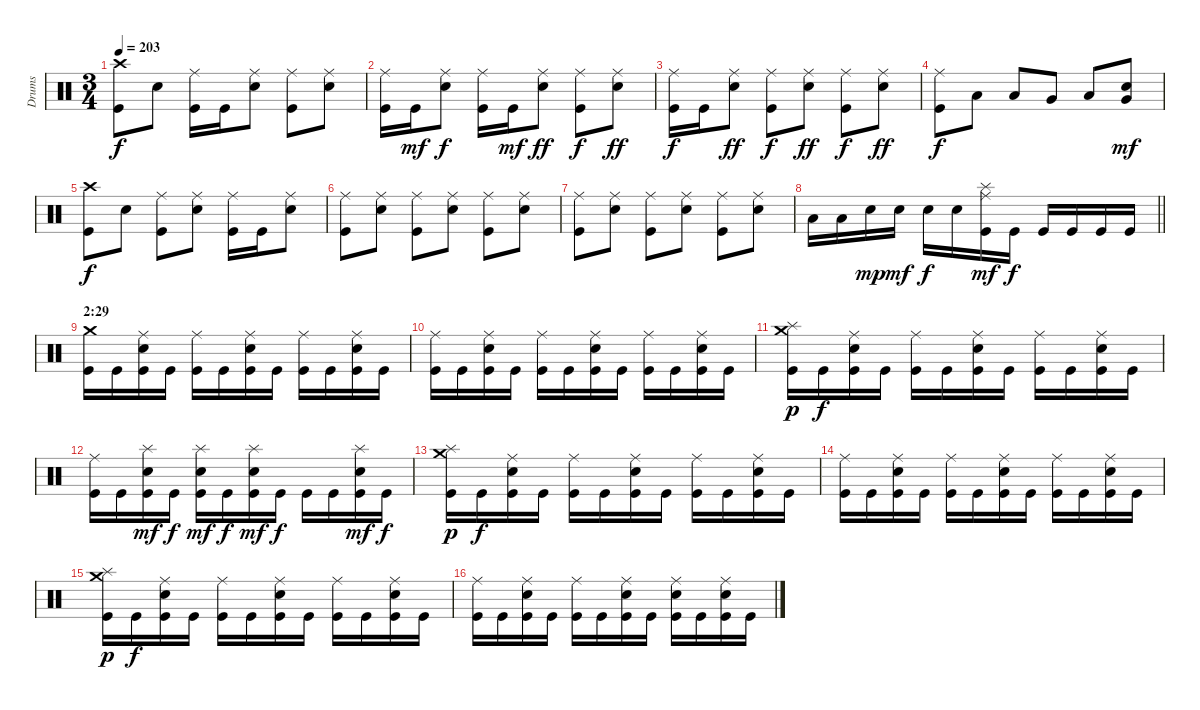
\track ("Drums" "Drums") {instrument percussion}
\staff {score}
\articulation defaults
\ts (3 4)
\tempo 203
\clef neutral
\ks c
("Crash high (hit)" "Kick (hit)").8{dy f} "Electric Snare (hit)".8 ("Ride (middle)" "Kick (hit)").16 "Kick (hit)".16 ("Ride (middle)" "Electric Snare (hit)").8 ("Ride (middle)" "Kick (hit)").8 ("Ride (middle)" "Electric Snare (hit)").8 |
("Ride (middle)" "Kick (hit)").16 "Kick (hit)".16{dy mf} ("Ride (middle)" "Electric Snare (hit)").8{dy f} ("Ride (middle)" "Kick (hit)").16 "Kick (hit)".16{dy mf} ("Ride (middle)" "Electric Snare (hit)").8{dy ff} ("Ride (middle)" "Kick (hit)").8{dy f} ("Ride (middle)" "Electric Snare (hit)").8{dy ff} |
("Ride (middle)" "Kick (hit)").16{dy f} "Kick (hit)".16 ("Ride (middle)" "Electric Snare (hit)").8{dy ff} ("Ride (middle)" "Kick (hit)").8{dy f} ("Ride (middle)" "Electric Snare (hit)").8{dy ff} ("Ride (middle)" "Kick (hit)").8{dy f} ("Ride (middle)" "Electric Snare (hit)").8{dy ff} |
("Ride (middle)" "Kick (hit)").8{dy f} "Low Tom (hit)".8 "Low Tom (hit)".8 "Very Low Tom (hit)".8 "Low Floor Tom (hit)".8 ("Very Low Tom (hit)" "Electric Snare (hit)").8{dy mf} |
("Crash high (hit)" "Kick (hit)").8{dy f} "Electric Snare (hit)".8 ("Ride (middle)" "Kick (hit)").8 ("Ride (middle)" "Electric Snare (hit)").8 ("Ride (middle)" "Kick (hit)").16 "Kick (hit)".16 ("Ride (middle)" "Electric Snare (hit)").8 |
("Ride (middle)" "Kick (hit)").8 ("Ride (middle)" "Electric Snare (hit)").8 ("Ride (middle)" "Kick (hit)").8 ("Ride (middle)" "Electric Snare (hit)").8 ("Ride (middle)" "Kick (hit)").8 ("Ride (middle)" "Electric Snare (hit)").8 |
("Ride (middle)" "Kick (hit)").8 ("Ride (middle)" "Electric Snare (hit)").8 ("Ride (middle)" "Kick (hit)").8 ("Ride (middle)" "Electric Snare (hit)").8 ("Ride (middle)" "Kick (hit)").8 ("Ride (middle)" "Electric Snare (hit)").8 |
\barLineRight lightlight "Low Tom (hit)".16 "Low Tom (hit)".16 "Electric Snare (hit)".16{dy mp} "Electric Snare (hit)".16{dy mf} "Electric Snare (hit)".16{dy f} "Electric Snare (hit)".16
("Splash (hit)" "Ride (middle)" "Kick (hit)").16{dy mf} "Kick (hit)".16{dy f} "Kick (hit)".16 "Kick (hit)".16 "Kick (hit)".16 "Kick (hit)".16 |
\section ("" "2:29")
("Crash medium (hit)" "Kick (hit)").16 "Kick (hit)".16 ("Ride (middle)" "Electric Snare (hit)" "Kick (hit)").16 "Kick (hit)".16 ("Ride (middle)" "Kick (hit)").16 "Kick (hit)".16 ("Ride (middle)" "Electric Snare (hit)" "Kick (hit)").16 "Kick (hit)".16 ("Ride (middle)" "Kick (hit)").16 "Kick (hit)".16 ("Ride (middle)" "Electric Snare (hit)" "Kick (hit)").16 "Kick (hit)".16 |
("Ride (middle)" "Kick (hit)").16 "Kick (hit)".16 ("Ride (middle)" "Electric Snare (hit)" "Kick (hit)").16 "Kick (hit)".16 ("Ride (middle)" "Kick (hit)").16 "Kick (hit)".16 ("Ride (middle)" "Electric Snare (hit)" "Kick (hit)").16 "Kick (hit)".16 ("Ride (middle)" "Kick (hit)").16 "Kick (hit)".16 ("Ride (middle)" "Electric Snare (hit)" "Kick (hit)").16 "Kick (hit)".16 |
("Splash (hit)" "Crash medium (hit)" "Kick (hit)").16{dy p} "Kick (hit)".16{dy f} ("Ride (middle)" "Electric Snare (hit)" "Kick (hit)").16 "Kick (hit)".16 ("Ride (middle)" "Kick (hit)").16 "Kick (hit)".16 ("Ride (middle)" "Electric Snare (hit)" "Kick (hit)").16 "Kick (hit)".16 ("Ride (middle)" "Kick (hit)").16 "Kick (hit)".16 ("Ride (middle)" "Electric Snare (hit)" "Kick (hit)").16 "Kick (hit)".16 |
("Ride (middle)" "Kick (hit)").16 "Kick (hit)".16 ("Splash (hit)" "Electric Snare (hit)" "Kick (hit)").16{dy mf} "Kick (hit)".16{dy f} ("Splash (hit)" "Electric Snare (hit)" "Kick (hit)").16{dy mf} "Kick (hit)".16{dy f} ("Splash (hit)" "Electric Snare (hit)" "Kick (hit)").16{dy mf} "Kick (hit)".16{dy f} "Kick (hit)".16 "Kick (hit)".16 ("Splash (hit)" "Electric Snare (hit)" "Kick (hit)").16{dy mf} "Kick (hit)".16{dy f} |
("Splash (hit)" "Crash medium (hit)" "Kick (hit)").16{dy p} "Kick (hit)".16{dy f} ("Ride (middle)" "Electric Snare (hit)" "Kick (hit)").16 "Kick (hit)".16 ("Ride (middle)" "Kick (hit)").16 "Kick (hit)".16 ("Ride (middle)" "Electric Snare (hit)" "Kick (hit)").16 "Kick (hit)".16 ("Ride (middle)" "Kick (hit)").16 "Kick (hit)".16 ("Ride (middle)" "Electric Snare (hit)" "Kick (hit)").16 "Kick (hit)".16 |
("Ride (middle)" "Kick (hit)").16 "Kick (hit)".16 ("Ride (middle)" "Electric Snare (hit)" "Kick (hit)").16 "Kick (hit)".16 ("Ride (middle)" "Kick (hit)").16 "Kick (hit)".16 ("Ride (middle)" "Electric Snare (hit)" "Kick (hit)").16 "Kick (hit)".16 ("Ride (middle)" "Kick (hit)").16 "Kick (hit)".16 ("Ride (middle)" "Electric Snare (hit)" "Kick (hit)").16 "Kick (hit)".16 |
("Splash (hit)" "Crash medium (hit)" "Kick (hit)").16{dy p} "Kick (hit)".16{dy f} ("Ride (middle)" "Electric Snare (hit)" "Kick (hit)").16 "Kick (hit)".16 ("Ride (middle)" "Kick (hit)").16 "Kick (hit)".16 ("Ride (middle)" "Electric Snare (hit)" "Kick (hit)").16 "Kick (hit)".16 ("Ride (middle)" "Kick (hit)").16 "Kick (hit)".16 ("Ride (middle)" "Electric Snare (hit)" "Kick (hit)").16 "Kick (hit)".16 |
("Ride (middle)" "Kick (hit)").16 "Kick (hit)".16 ("Ride (middle)" "Electric Snare (hit)" "Kick (hit)").16 "Kick (hit)".16 ("Ride (middle)" "Kick (hit)").16 "Kick (hit)".16 ("Ride (middle)" "Electric Snare (hit)" "Kick (hit)").16 "Kick (hit)".16 ("Ride (middle)" "Electric Snare (hit)" "Kick (hit)").16 "Kick (hit)".16 ("Ride (middle)" "Electric Snare (hit)" "Kick (hit)").16 "Kick (hit)".16
